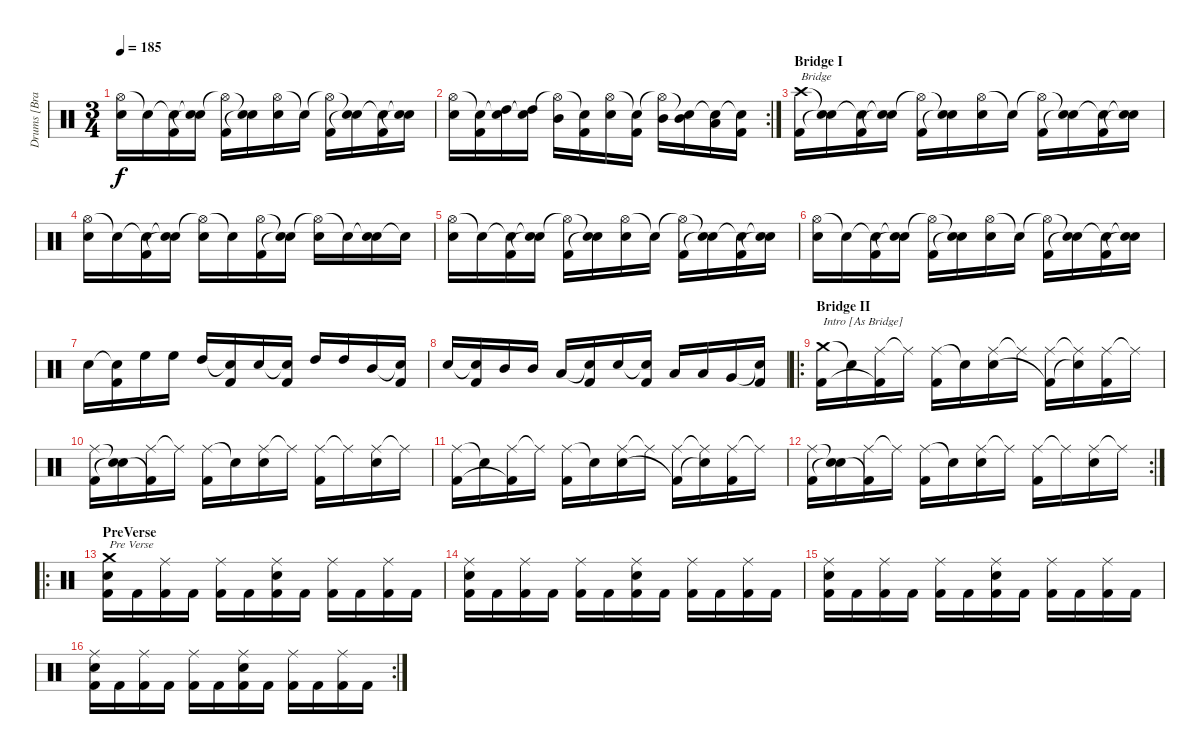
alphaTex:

\track ("Drums [Brann Dailor]" "Drums [Bra") {instrument percussion}
\staff {score}
\articulation defaults
\ts (3 4)
\tempo 185
\clef neutral
\ks c
("Hi-Hat (open)" "Electric Snare (hit)").16{dy f} "Snare (hit)"{t}.16 ("Snare (hit)"{t} "Kick (hit) 2").16 ("Snare (hit)"{t} "Snare (hit)"{t}).16 ("Hi-Hat (open)"{t} "Kick (hit) 2").16 ("Snare (hit)"{t} "Snare (hit)"{t}).16 ("Hi-Hat (open)" "Electric Snare (hit)").16 "Snare (hit)"{t}.16 ("Hi-Hat (open)"{t} "Kick (hit) 2").16 ("Snare (hit)"{t} "Snare (hit)"{t}).16 ("Snare (hit)"{t} "Kick (hit) 2").16 ("Snare (hit)"{t} "Snare (hit)"{t}).16 |
\rc 2
("Hi-Hat (open)" "Electric Snare (hit)").16 ("Snare (hit)"{t} "Kick (hit) 2").16 ("Snare (hit)"{t} "High Tom (hit)").16 ("Snare (hit)"{t} "High Tom (hit)").16 ("Hi-Hat (open)"{t} "Mid Tom (hit)").16 ("Snare (hit)"{t} "Kick (hit) 2").16 ("Hi-Hat (open)" "Electric Snare (hit)").16 ("Snare (hit)"{t} "Kick (hit) 2").16 ("Hi-Hat (open)"{t} "Mid Tom (hit)").16 ("Snare (hit)"{t} "Mid Tom (hit)").16 ("Snare (hit)"{t} "Low Tom (hit)").16 ("Snare (hit)"{t} "Kick (hit) 2").16 |
\section ("" "Bridge I")
("Crash high (hit)" "Kick (hit) 2").16{txt "Bridge"} ("Snare (hit)"{t} "Snare (hit)"{t}).16 ("Snare (hit)"{t} "Kick (hit) 2").16 ("Snare (hit)"{t} "Snare (hit)"{t}).16 ("Hi-Hat (open)"{t} "Kick (hit) 2").16 ("Snare (hit)"{t} "Snare (hit)"{t}).16 ("Hi-Hat (open)" "Electric Snare (hit)").16 "Snare (hit)"{t}.16 ("Hi-Hat (open)"{t} "Kick (hit) 2").16 ("Snare (hit)"{t} "Snare (hit)"{t}).16 ("Snare (hit)"{t} "Kick (hit) 2").16 ("Snare (hit)"{t} "Snare (hit)"{t}).16 |
("Hi-Hat (open)" "Electric Snare (hit)").16 "Snare (hit)"{t}.16 ("Snare (hit)"{t} "Kick (hit) 2").16 ("Snare (hit)"{t} "Snare (hit)"{t}).16 ("Hi-Hat (open)"{t} "Electric Snare (hit)").16 "Snare (hit)"{t}.16 ("Hi-Hat (open)" "Kick (hit) 2").16 ("Snare (hit)"{t} "Snare (hit)"{t}).16 ("Hi-Hat (open)"{t} "Electric Snare (hit)").16 "Snare (hit)"{t}.16 ("Snare (hit)"{t} "Electric Snare (hit)").16 "Snare (hit)"{t}.16 |
("Hi-Hat (open)" "Electric Snare (hit)").16 "Snare (hit)"{t}.16 ("Snare (hit)"{t} "Kick (hit) 2").16 ("Snare (hit)"{t} "Snare (hit)"{t}).16 ("Hi-Hat (open)"{t} "Kick (hit) 2").16 ("Snare (hit)"{t} "Snare (hit)"{t}).16 ("Hi-Hat (open)" "Electric Snare (hit)").16 "Snare (hit)"{t}.16 ("Hi-Hat (open)"{t} "Kick (hit) 2").16 ("Snare (hit)"{t} "Snare (hit)"{t}).16 ("Snare (hit)"{t} "Kick (hit) 2").16 ("Snare (hit)"{t} "Snare (hit)"{t}).16 |
("Hi-Hat (open)" "Electric Snare (hit)").16 "Snare (hit)"{t}.16 ("Snare (hit)"{t} "Kick (hit) 2").16 ("Snare (hit)"{t} "Snare (hit)"{t}).16 ("Hi-Hat (open)"{t} "Kick (hit) 2").16 ("Snare (hit)"{t} "Snare (hit)"{t}).16 ("Hi-Hat (open)" "Electric Snare (hit)").16 "Snare (hit)"{t}.16 ("Hi-Hat (open)"{t} "Kick (hit) 2").16 ("Snare (hit)"{t} "Snare (hit)"{t}).16 ("Snare (hit)"{t} "Kick (hit) 2").16 ("Snare (hit)"{t} "Snare (hit)"{t}).16 |
"Electric Snare (hit)".16 ("Snare (hit)"{t} "Kick (hit) 2").16 "High Floor Tom (hit)".16 "High Floor Tom (hit)".16 "High Tom (hit)".16 ("Snare (hit)"{t} "Kick (hit) 2").16 "Electric Snare (hit)".16 ("Snare (hit)"{t} "Kick (hit) 2").16 "High Tom (hit)".16 "High Tom (hit)".16 "Mid Tom (hit)".16 ("Snare (hit)"{t} "Kick (hit) 2").16 |
"Electric Snare (hit)".16 ("Snare (hit)"{t} "Kick (hit) 2").16 "Mid Tom (hit)".16 "Mid Tom (hit)".16 "Low Tom (hit)".16 ("Snare (hit)"{t} "Kick (hit) 2").16 "Electric Snare (hit)".16 ("Snare (hit)"{t} "Kick (hit) 2").16 "Low Tom (hit)".16 "Low Tom (hit)".16 "Very Low Tom (hit)".16 ("Snare (hit)"{t} "Kick (hit) 2").16 |
\ro
\section ("" "Bridge II")
("Crash medium (hit)" "Kick (hit) 2").16{txt "Intro [As Bridge]"} "Snare (hit)"{t}.16 ("Ride (middle)" "Kick (hit) 2"{t}).16 "Ride (middle)"{t}.16 ("Ride (middle)" "Kick (hit) 2").16 "Snare (hit)"{t}.16 ("Ride (middle)" "Electric Snare (hit)").16 "Ride (middle)"{t}.16 ("Ride (middle)" "Kick (hit) 2"{t}).16 ("Ride (middle)"{t} "Snare (hit)"{t}).16 ("Ride (middle)" "Kick (hit) 2").16 "Ride (middle)"{t}.16 |
("Ride (middle)" "Kick (hit) 2").16 ("Snare (hit)"{t} "Snare (hit)"{t}).16 ("Ride (middle)" "Kick (hit) 2"{t}).16 "Ride (middle)"{t}.16 ("Ride (middle)" "Kick (hit) 2").16 "Snare (hit)"{t}.16 ("Ride (middle)" "Electric Snare (hit)").16 "Ride (middle)"{t}.16 ("Ride (middle)" "Kick (hit) 2").16 "Ride (middle)"{t}.16 ("Ride (middle)" "Electric Snare (hit)").16 "Ride (middle)"{t}.16 |
("Ride (middle)" "Kick (hit) 2").16 "Snare (hit)"{t}.16 ("Ride (middle)" "Kick (hit) 2"{t}).16 "Ride (middle)"{t}.16 ("Ride (middle)" "Kick (hit) 2").16 "Snare (hit)"{t}.16 ("Ride (middle)" "Electric Snare (hit)").16 "Ride (middle)"{t}.16 ("Ride (middle)" "Kick (hit) 2"{t}).16 ("Ride (middle)"{t} "Snare (hit)"{t}).16 ("Ride (middle)" "Kick (hit) 2").16 "Ride (middle)"{t}.16 |
\rc 2
("Ride (middle)" "Kick (hit) 2").16 ("Snare (hit)"{t} "Snare (hit)"{t}).16 ("Ride (middle)" "Kick (hit) 2"{t}).16 "Ride (middle)"{t}.16 ("Ride (middle)" "Kick (hit) 2").16 "Snare (hit)"{t}.16 ("Ride (middle)" "Electric Snare (hit)").16 "Ride (middle)"{t}.16 ("Ride (middle)" "Kick (hit) 2").16 "Ride (middle)"{t}.16 ("Ride (middle)" "Electric Snare (hit)").16 "Ride (middle)"{t}.16 |
\ro
\section ("" "PreVerse")
("Crash medium (hit)" "Electric Snare (hit)" "Kick (hit) 2").16{txt "Pre Verse"} "Kick (hit) 2".16 ("Ride (middle)" "Kick (hit) 2").16 "Kick (hit) 2".16 ("Ride (middle)" "Kick (hit) 2").16 "Kick (hit) 2".16 ("Ride (middle)" "Electric Snare (hit)" "Kick (hit) 2").16 "Kick (hit) 2".16 ("Ride (middle)" "Kick (hit) 2").16 "Kick (hit) 2".16 ("Ride (middle)" "Kick (hit) 2").16 "Kick (hit) 2".16 |
("Ride (middle)" "Electric Snare (hit)" "Kick (hit) 2").16 "Kick (hit) 2".16 ("Ride (middle)" "Kick (hit) 2").16 "Kick (hit) 2".16 ("Ride (middle)" "Kick (hit) 2").16 "Kick (hit) 2".16 ("Ride (middle)" "Electric Snare (hit)" "Kick (hit) 2").16 "Kick (hit) 2".16 ("Ride (middle)" "Kick (hit) 2").16 "Kick (hit) 2".16 ("Ride (middle)" "Kick (hit) 2").16 "Kick (hit) 2".16 |
("Ride (middle)" "Electric Snare (hit)" "Kick (hit) 2").16 "Kick (hit) 2".16 ("Ride (middle)" "Kick (hit) 2").16 "Kick (hit) 2".16 ("Ride (middle)" "Kick (hit) 2").16 "Kick (hit) 2".16 ("Ride (middle)" "Electric Snare (hit)" "Kick (hit) 2").16 "Kick (hit) 2".16 ("Ride (middle)" "Kick (hit) 2").16 "Kick (hit) 2".16 ("Ride (middle)" "Kick (hit) 2").16 "Kick (hit) 2".16 |
\rc 2
("Ride (middle)" "Electric Snare (hit)" "Kick (hit) 2").16 "Kick (hit) 2".16 ("Ride (middle)" "Kick (hit) 2").16 "Kick (hit) 2".16 ("Ride (middle)" "Kick (hit) 2").16 "Kick (hit) 2".16 ("Ride (middle)" "Electric Snare (hit)" "Kick (hit) 2").16 "Kick (hit) 2".16 ("Ride (middle)" "Kick (hit) 2").16 "Kick (hit) 2".16 ("Ride (middle)" "Kick (hit) 2").16 "Kick (hit) 2".16
